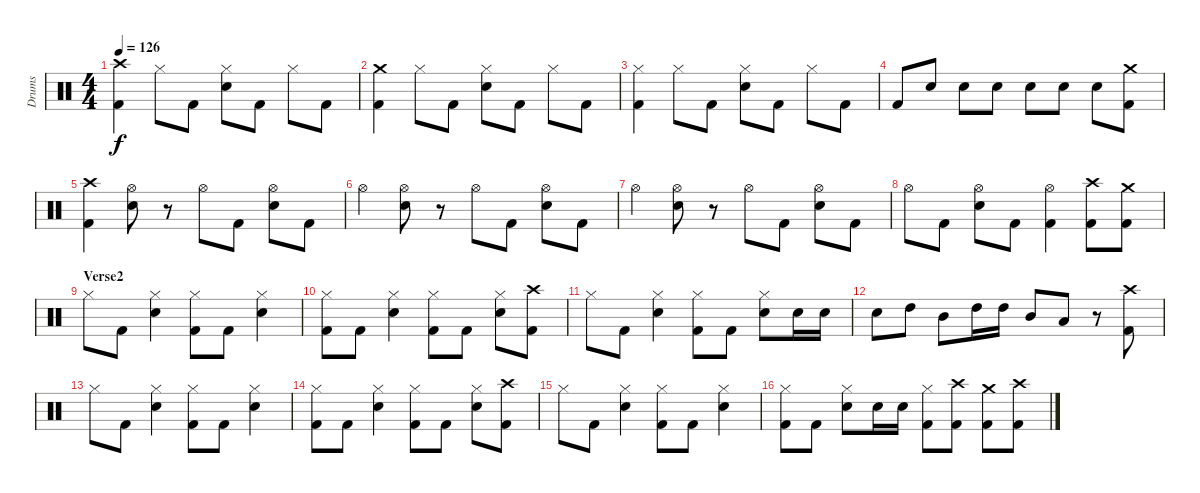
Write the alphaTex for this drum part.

\track ("Drums" "Drums") {instrument percussion}
\staff {score}
\articulation defaults
\ts (4 4)
\tempo 126
\clef neutral
\ks c
("Crash high (hit)" "Kick (hit) 2").4{dy f} "Hi-Hat (closed)".8 "Kick (hit) 2".8 ("Hi-Hat (closed)" "Snare (hit) 2").8 "Kick (hit) 2".8 "Hi-Hat (closed)".8 "Kick (hit) 2".8 |
("Crash medium (hit)" "Kick (hit) 2").4 "Hi-Hat (closed)".8 "Kick (hit) 2".8 ("Hi-Hat (closed)" "Snare (hit) 2").8 "Kick (hit) 2".8 "Hi-Hat (closed)".8 "Kick (hit) 2".8 |
("Hi-Hat (closed)" "Kick (hit) 2").4 "Hi-Hat (closed)".8 "Kick (hit) 2".8 ("Hi-Hat (closed)" "Snare (hit) 2").8 "Kick (hit) 2".8 "Hi-Hat (closed)".8 "Kick (hit) 2".8 |
"Kick (hit) 2".8 "Snare (hit) 2".8 "Snare (hit) 2".8 "Snare (hit) 2".8 "Snare (hit) 2".8 "Snare (hit) 2".8 "Snare (hit) 2".8 ("Crash medium (hit)" "Kick (hit) 2").8 |
("Crash high (hit)" "Kick (hit) 2").4 ("Hi-Hat (open)" "Snare (hit) 2").8 r.8 "Hi-Hat (open)".8 "Kick (hit) 2".8 ("Hi-Hat (open)" "Snare (hit) 2").8 "Kick (hit) 2".8 |
"Hi-Hat (open)".4 ("Hi-Hat (open)" "Snare (hit) 2").8 r.8 "Hi-Hat (open)".8 "Kick (hit) 2".8 ("Hi-Hat (open)" "Snare (hit) 2").8 "Kick (hit) 2".8 |
"Hi-Hat (open)".4 ("Hi-Hat (open)" "Snare (hit) 2").8 r.8 "Hi-Hat (open)".8 "Kick (hit) 2".8 ("Hi-Hat (open)" "Snare (hit) 2").8 "Kick (hit) 2".8 |
"Hi-Hat (open)".8 "Kick (hit) 2".8 ("Hi-Hat (open)" "Snare (hit) 2").8 "Kick (hit) 2".8 ("Hi-Hat (open)" "Kick (hit) 2").4 ("Crash high (hit)" "Kick (hit) 2").8 ("Crash medium (hit)" "Kick (hit) 2").8 |
\section ("" "Verse2")
"Hi-Hat (closed)".8 "Kick (hit) 2".8 ("Hi-Hat (closed)" "Snare (hit) 2").4 ("Hi-Hat (closed)" "Kick (hit) 2").8 "Kick (hit) 2".8 ("Hi-Hat (closed)" "Snare (hit) 2").4 |
("Hi-Hat (closed)" "Kick (hit) 2").8 "Kick (hit) 2".8 ("Hi-Hat (closed)" "Snare (hit) 2").4 ("Hi-Hat (closed)" "Kick (hit) 2").8 "Kick (hit) 2".8 ("Hi-Hat (closed)" "Snare (hit) 2").8 ("Crash high (hit)" "Kick (hit) 2").8 |
"Hi-Hat (closed)".8 "Kick (hit) 2".8 ("Hi-Hat (closed)" "Snare (hit) 2").4 ("Hi-Hat (closed)" "Kick (hit) 2").8 "Kick (hit) 2".8 ("Hi-Hat (closed)" "Snare (hit) 2").8 "Snare (hit) 2".16 "Snare (hit) 2".16 |
"Snare (hit) 2".8 "High Tom (hit)".8 "Mid Tom (hit)".8 "High Tom (hit)".16 "High Tom (hit)".16 "Mid Tom (hit)".8 "Low Tom (hit)".8 r.8 ("Crash high (hit)" "Kick (hit) 2").8 |
"Hi-Hat (closed)".8 "Kick (hit) 2".8 ("Hi-Hat (closed)" "Snare (hit) 2").4 ("Hi-Hat (closed)" "Kick (hit) 2").8 "Kick (hit) 2".8 ("Hi-Hat (closed)" "Snare (hit) 2").4 |
("Hi-Hat (closed)" "Kick (hit) 2").8 "Kick (hit) 2".8 ("Hi-Hat (closed)" "Snare (hit) 2").4 ("Hi-Hat (closed)" "Kick (hit) 2").8 "Kick (hit) 2".8 ("Hi-Hat (closed)" "Snare (hit) 2").8 ("Crash high (hit)" "Kick (hit) 2").8 |
"Hi-Hat (closed)".8 "Kick (hit) 2".8 ("Hi-Hat (closed)" "Snare (hit) 2").4 ("Hi-Hat (closed)" "Kick (hit) 2").8 "Kick (hit) 2".8 ("Hi-Hat (closed)" "Snare (hit) 2").4 |
("Hi-Hat (closed)" "Kick (hit) 2").8 "Kick (hit) 2".8 ("Hi-Hat (closed)" "Snare (hit) 2").8 "Snare (hit) 2".16 "Snare (hit) 2".16 ("Hi-Hat (closed)" "Kick (hit) 2").8 ("Crash high (hit)" "Kick (hit) 2").8 ("Crash medium (hit)" "Kick (hit) 2").8 ("Crash high (hit)" "Kick (hit) 2").8
